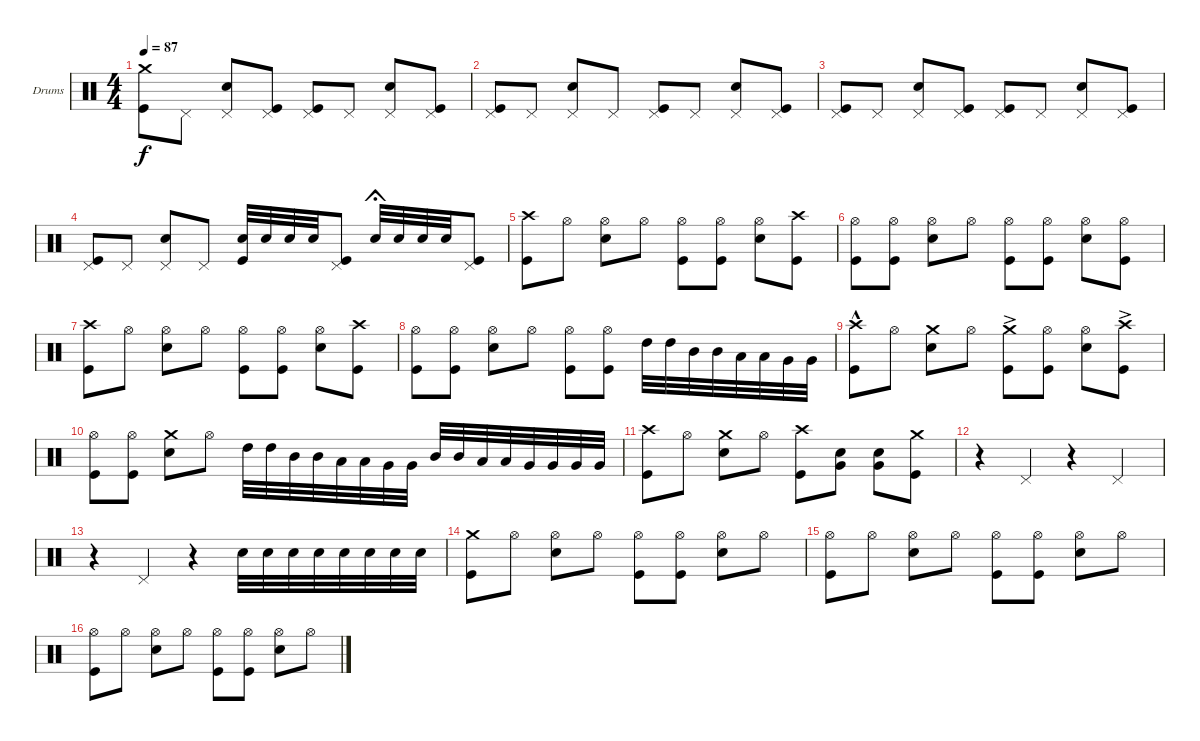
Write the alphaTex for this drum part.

\bracketExtendMode groupsimilarinstruments
\firstSystemTrackNameOrientation horizontal
\otherSystemsTrackNameOrientation horizontal
\track ("Drumkit" "Drums") {instrument percussion}
\staff {score}
\articulation defaults
\ts (4 4)
\tempo 87
\clef neutral
\ks c
("Crash medium (hit)" "Kick (hit)").8{dy f} "Pedal Hi-Hat (hit)".8 ("Pedal Hi-Hat (hit)" "Snare (hit) 2").8 ("Pedal Hi-Hat (hit)" "Kick (hit)").8 ("Pedal Hi-Hat (hit)" "Kick (hit)").8 "Pedal Hi-Hat (hit)".8 ("Pedal Hi-Hat (hit)" "Snare (hit) 2").8 ("Pedal Hi-Hat (hit)" "Kick (hit)").8 |
("Pedal Hi-Hat (hit)" "Kick (hit)").8 "Pedal Hi-Hat (hit)".8 ("Pedal Hi-Hat (hit)" "Snare (hit) 2").8 "Pedal Hi-Hat (hit)".8 ("Pedal Hi-Hat (hit)" "Kick (hit)").8 "Pedal Hi-Hat (hit)".8 ("Pedal Hi-Hat (hit)" "Snare (hit) 2").8 ("Pedal Hi-Hat (hit)" "Kick (hit)").8 |
("Pedal Hi-Hat (hit)" "Kick (hit)").8 "Pedal Hi-Hat (hit)".8 ("Pedal Hi-Hat (hit)" "Snare (hit) 2").8 ("Pedal Hi-Hat (hit)" "Kick (hit)").8 ("Pedal Hi-Hat (hit)" "Kick (hit)").8 "Pedal Hi-Hat (hit)".8 ("Pedal Hi-Hat (hit)" "Snare (hit) 2").8 ("Pedal Hi-Hat (hit)" "Kick (hit)").8 |
("Pedal Hi-Hat (hit)" "Kick (hit)").8 "Pedal Hi-Hat (hit)".8 ("Pedal Hi-Hat (hit)" "Snare (hit) 2").8 "Pedal Hi-Hat (hit)".8 ("Snare (hit) 2" "Kick (hit)").32 "Snare (hit) 2".32 "Snare (hit) 2".32 "Snare (hit) 2".32 ("Pedal Hi-Hat (hit)" "Kick (hit)").8 "Snare (hit) 2".32{fermata (short 0)} "Snare (hit) 2".32 "Snare (hit) 2".32 "Snare (hit) 2".32 ("Pedal Hi-Hat (hit)" "Kick (hit)").8 |
("Crash high (hit)" "Kick (hit)").8 "Hi-Hat (open)".8 ("Hi-Hat (open)" "Snare (hit) 2").8 "Hi-Hat (open)".8 ("Hi-Hat (open)" "Kick (hit)").8 ("Hi-Hat (open)" "Kick (hit)").8 ("Hi-Hat (open)" "Snare (hit) 2").8 ("Crash high (hit)" "Kick (hit)").8 |
("Hi-Hat (open)" "Kick (hit)").8 ("Hi-Hat (open)" "Kick (hit)").8 ("Hi-Hat (open)" "Snare (hit) 2").8 "Hi-Hat (open)".8 ("Hi-Hat (open)" "Kick (hit)").8 ("Hi-Hat (open)" "Kick (hit)").8 ("Hi-Hat (open)" "Snare (hit) 2").8 ("Hi-Hat (open)" "Kick (hit)").8 |
("Crash high (hit)" "Kick (hit)").8 "Hi-Hat (open)".8 ("Hi-Hat (open)" "Snare (hit) 2").8 "Hi-Hat (open)".8 ("Hi-Hat (open)" "Kick (hit)").8 ("Hi-Hat (open)" "Kick (hit)").8 ("Hi-Hat (open)" "Snare (hit) 2").8 ("Crash high (hit)" "Kick (hit)").8 |
("Hi-Hat (open)" "Kick (hit)").8 ("Hi-Hat (open)" "Kick (hit)").8 ("Hi-Hat (open)" "Snare (hit) 2").8 "Hi-Hat (open)".8 ("Hi-Hat (open)" "Kick (hit)").8 ("Hi-Hat (open)" "Kick (hit)").8 "High Tom (hit)".32 "High Tom (hit)".32 "Mid Tom (hit)".32 "Mid Tom (hit)".32 "Low Tom (hit)".32 "Low Tom (hit)".32 "Very Low Tom (hit)".32 "Very Low Tom (hit)".32 |
("Crash high (hit)"{hac} "Kick (hit)").8 "Hi-Hat (open)".8 ("Crash medium (hit)" "Snare (hit) 2").8 "Hi-Hat (open)".8 ("Crash medium (hit)"{ac} "Kick (hit)").8 ("Hi-Hat (open)" "Kick (hit)").8 ("Hi-Hat (open)" "Snare (hit) 2").8 ("Crash high (hit)"{ac} "Kick (hit)").8 |
("Hi-Hat (open)" "Kick (hit)").8 ("Hi-Hat (open)" "Kick (hit)").8 ("Crash medium (hit)" "Snare (hit) 2").8 "Hi-Hat (open)".8 "High Tom (hit)".32 "High Tom (hit)".32 "Mid Tom (hit)".32 "Mid Tom (hit)".32 "Low Tom (hit)".32 "Low Tom (hit)".32 "Very Low Tom (hit)".32 "Very Low Tom (hit)".32 "Mid Tom (hit)".32 "Mid Tom (hit)".32 "Low Tom (hit)".32 "Low Tom (hit)".32 "Very Low Tom (hit)".32 "Very Low Tom (hit)".32 "Very Low Tom (hit)".32 "Very Low Tom (hit)".32 |
("Crash high (hit)" "Kick (hit)").8 "Hi-Hat (open)".8 ("Crash medium (hit)" "Snare (hit) 2").8 "Hi-Hat (open)".8 ("Crash high (hit)" "Kick (hit)").8 ("Very Low Tom (hit)" "Snare (hit) 2").8 ("Very Low Tom (hit)" "Snare (hit) 2").8 ("Crash medium (hit)" "Kick (hit)").8 |
r.4 "Pedal Hi-Hat (hit)".4 r.4 "Pedal Hi-Hat (hit)".4 |
r.4 "Pedal Hi-Hat (hit)".4 r.4 "Snare (hit) 2".32 "Snare (hit) 2".32 "Snare (hit) 2".32 "Snare (hit) 2".32 "Snare (hit) 2".32 "Snare (hit) 2".32 "Snare (hit) 2".32 "Snare (hit) 2".32 |
("Crash medium (hit)" "Kick (hit)").8 "Hi-Hat (open)".8 ("Hi-Hat (open)" "Snare (hit) 2").8 "Hi-Hat (open)".8 ("Hi-Hat (open)" "Kick (hit)").8 ("Hi-Hat (open)" "Kick (hit)").8 ("Hi-Hat (open)" "Snare (hit) 2").8 "Hi-Hat (open)".8 |
("Hi-Hat (open)" "Kick (hit)").8 "Hi-Hat (open)".8 ("Hi-Hat (open)" "Snare (hit) 2").8 "Hi-Hat (open)".8 ("Hi-Hat (open)" "Kick (hit)").8 ("Hi-Hat (open)" "Kick (hit)").8 ("Hi-Hat (open)" "Snare (hit) 2").8 "Hi-Hat (open)".8 |
("Hi-Hat (open)" "Kick (hit)").8 "Hi-Hat (open)".8 ("Hi-Hat (open)" "Snare (hit) 2").8 "Hi-Hat (open)".8 ("Hi-Hat (open)" "Kick (hit)").8 ("Hi-Hat (open)" "Kick (hit)").8 ("Hi-Hat (open)" "Snare (hit) 2").8 "Hi-Hat (open)".8
